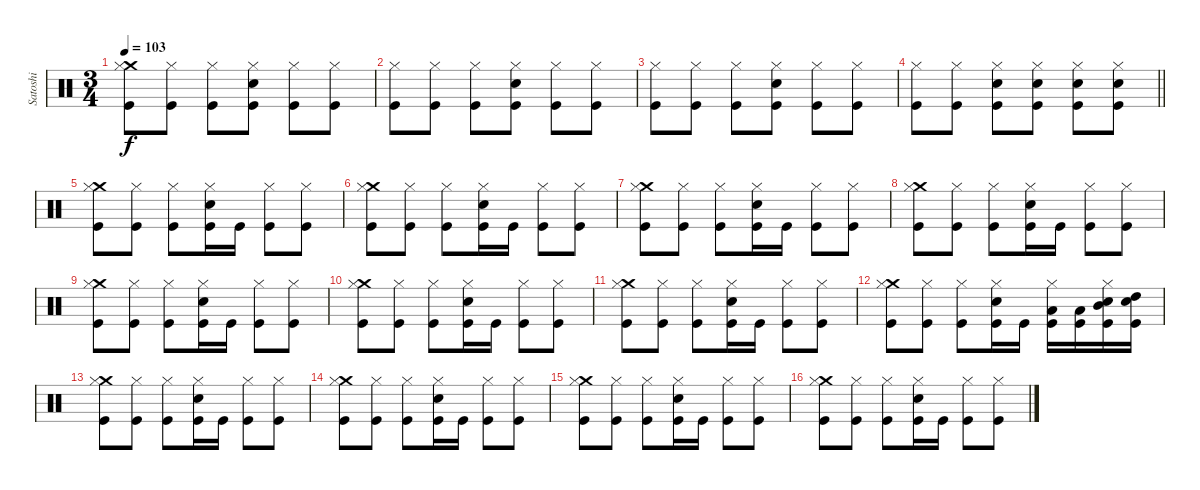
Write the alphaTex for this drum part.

\track ("Satoshi" "Satoshi") {instrument percussion}
\staff {score}
\articulation defaults
\ts (3 4)
\tempo 103
\clef neutral
\ks c
("Crash medium (hit)" "Hi-Hat (closed)" "Kick (hit)").8{dy f} ("Hi-Hat (closed)" "Kick (hit)").8 ("Hi-Hat (closed)" "Kick (hit)").8 ("Hi-Hat (closed)" "Electric Snare (hit)" "Kick (hit)").8 ("Hi-Hat (closed)" "Kick (hit)").8 ("Hi-Hat (closed)" "Kick (hit)").8 |
("Hi-Hat (closed)" "Kick (hit)").8 ("Hi-Hat (closed)" "Kick (hit)").8 ("Hi-Hat (closed)" "Kick (hit)").8 ("Hi-Hat (closed)" "Electric Snare (hit)" "Kick (hit)").8 ("Hi-Hat (closed)" "Kick (hit)").8 ("Hi-Hat (closed)" "Kick (hit)").8 |
("Hi-Hat (closed)" "Kick (hit)").8 ("Hi-Hat (closed)" "Kick (hit)").8 ("Hi-Hat (closed)" "Kick (hit)").8 ("Hi-Hat (closed)" "Electric Snare (hit)" "Kick (hit)").8 ("Hi-Hat (closed)" "Kick (hit)").8 ("Hi-Hat (closed)" "Kick (hit)").8 |
\barLineRight lightlight
("Hi-Hat (closed)" "Kick (hit)").8 ("Hi-Hat (closed)" "Kick (hit)").8 ("Hi-Hat (closed)" "Electric Snare (hit)" "Kick (hit)").8 ("Hi-Hat (closed)" "Electric Snare (hit)" "Kick (hit)").8 ("Hi-Hat (closed)" "Electric Snare (hit)" "Kick (hit)").8 ("Hi-Hat (closed)" "Electric Snare (hit)" "Kick (hit)").8 |
("Crash medium (hit)" "Hi-Hat (closed)" "Kick (hit)").8 ("Hi-Hat (closed)" "Kick (hit)").8 ("Hi-Hat (closed)" "Kick (hit)").8 ("Hi-Hat (closed)" "Electric Snare (hit)" "Kick (hit)").16 "Kick (hit)".16 ("Hi-Hat (closed)" "Kick (hit)").8 ("Hi-Hat (closed)" "Kick (hit)").8 |
("Crash medium (hit)" "Hi-Hat (closed)" "Kick (hit)").8 ("Hi-Hat (closed)" "Kick (hit)").8 ("Hi-Hat (closed)" "Kick (hit)").8 ("Hi-Hat (closed)" "Electric Snare (hit)" "Kick (hit)").16 "Kick (hit)".16 ("Hi-Hat (closed)" "Kick (hit)").8 ("Hi-Hat (closed)" "Kick (hit)").8 |
("Crash medium (hit)" "Hi-Hat (closed)" "Kick (hit)").8 ("Hi-Hat (closed)" "Kick (hit)").8 ("Hi-Hat (closed)" "Kick (hit)").8 ("Hi-Hat (closed)" "Electric Snare (hit)" "Kick (hit)").16 "Kick (hit)".16 ("Hi-Hat (closed)" "Kick (hit)").8 ("Hi-Hat (closed)" "Kick (hit)").8 |
("Crash medium (hit)" "Hi-Hat (closed)" "Kick (hit)").8 ("Hi-Hat (closed)" "Kick (hit)").8 ("Hi-Hat (closed)" "Kick (hit)").8 ("Hi-Hat (closed)" "Electric Snare (hit)" "Kick (hit)").16 "Kick (hit)".16 ("Hi-Hat (closed)" "Kick (hit)").8 ("Hi-Hat (closed)" "Kick (hit)").8 |
("Crash medium (hit)" "Hi-Hat (closed)" "Kick (hit)").8 ("Hi-Hat (closed)" "Kick (hit)").8 ("Hi-Hat (closed)" "Kick (hit)").8 ("Hi-Hat (closed)" "Electric Snare (hit)" "Kick (hit)").16 "Kick (hit)".16 ("Hi-Hat (closed)" "Kick (hit)").8 ("Hi-Hat (closed)" "Kick (hit)").8 |
("Crash medium (hit)" "Hi-Hat (closed)" "Kick (hit)").8 ("Hi-Hat (closed)" "Kick (hit)").8 ("Hi-Hat (closed)" "Kick (hit)").8 ("Hi-Hat (closed)" "Electric Snare (hit)" "Kick (hit)").16 "Kick (hit)".16 ("Hi-Hat (closed)" "Kick (hit)").8 ("Hi-Hat (closed)" "Kick (hit)").8 |
("Crash medium (hit)" "Hi-Hat (closed)" "Kick (hit)").8 ("Hi-Hat (closed)" "Kick (hit)").8 ("Hi-Hat (closed)" "Kick (hit)").8 ("Hi-Hat (closed)" "Electric Snare (hit)" "Kick (hit)").16 "Kick (hit)".16 ("Hi-Hat (closed)" "Kick (hit)").8 ("Hi-Hat (closed)" "Kick (hit)").8 |
("Crash medium (hit)" "Hi-Hat (closed)" "Kick (hit)").8 ("Hi-Hat (closed)" "Kick (hit)").8 ("Hi-Hat (closed)" "Kick (hit)").8 ("Hi-Hat (closed)" "Electric Snare (hit)" "Kick (hit)").16 "Kick (hit)".16 ("Hi-Hat (closed)" "Low Tom (hit)" "Kick (hit)").16 ("Low Tom (hit)" "Kick (hit)").16 ("Hi-Hat (closed)" "Mid Tom (hit)" "Electric Snare (hit)" "Kick (hit)").16 ("High Tom (hit)" "Electric Snare (hit)" "Kick (hit)").16 |
("Crash medium (hit)" "Hi-Hat (closed)" "Kick (hit)").8 ("Hi-Hat (closed)" "Kick (hit)").8 ("Hi-Hat (closed)" "Kick (hit)").8 ("Hi-Hat (closed)" "Electric Snare (hit)" "Kick (hit)").16 "Kick (hit)".16 ("Hi-Hat (closed)" "Kick (hit)").8 ("Hi-Hat (closed)" "Kick (hit)").8 |
("Crash medium (hit)" "Hi-Hat (closed)" "Kick (hit)").8 ("Hi-Hat (closed)" "Kick (hit)").8 ("Hi-Hat (closed)" "Kick (hit)").8 ("Hi-Hat (closed)" "Electric Snare (hit)" "Kick (hit)").16 "Kick (hit)".16 ("Hi-Hat (closed)" "Kick (hit)").8 ("Hi-Hat (closed)" "Kick (hit)").8 |
("Crash medium (hit)" "Hi-Hat (closed)" "Kick (hit)").8 ("Hi-Hat (closed)" "Kick (hit)").8 ("Hi-Hat (closed)" "Kick (hit)").8 ("Hi-Hat (closed)" "Electric Snare (hit)" "Kick (hit)").16 "Kick (hit)".16 ("Hi-Hat (closed)" "Kick (hit)").8 ("Hi-Hat (closed)" "Kick (hit)").8 |
("Crash medium (hit)" "Hi-Hat (closed)" "Kick (hit)").8 ("Hi-Hat (closed)" "Kick (hit)").8 ("Hi-Hat (closed)" "Kick (hit)").8 ("Hi-Hat (closed)" "Electric Snare (hit)" "Kick (hit)").16 "Kick (hit)".16 ("Hi-Hat (closed)" "Kick (hit)").8 ("Hi-Hat (closed)" "Kick (hit)").8
